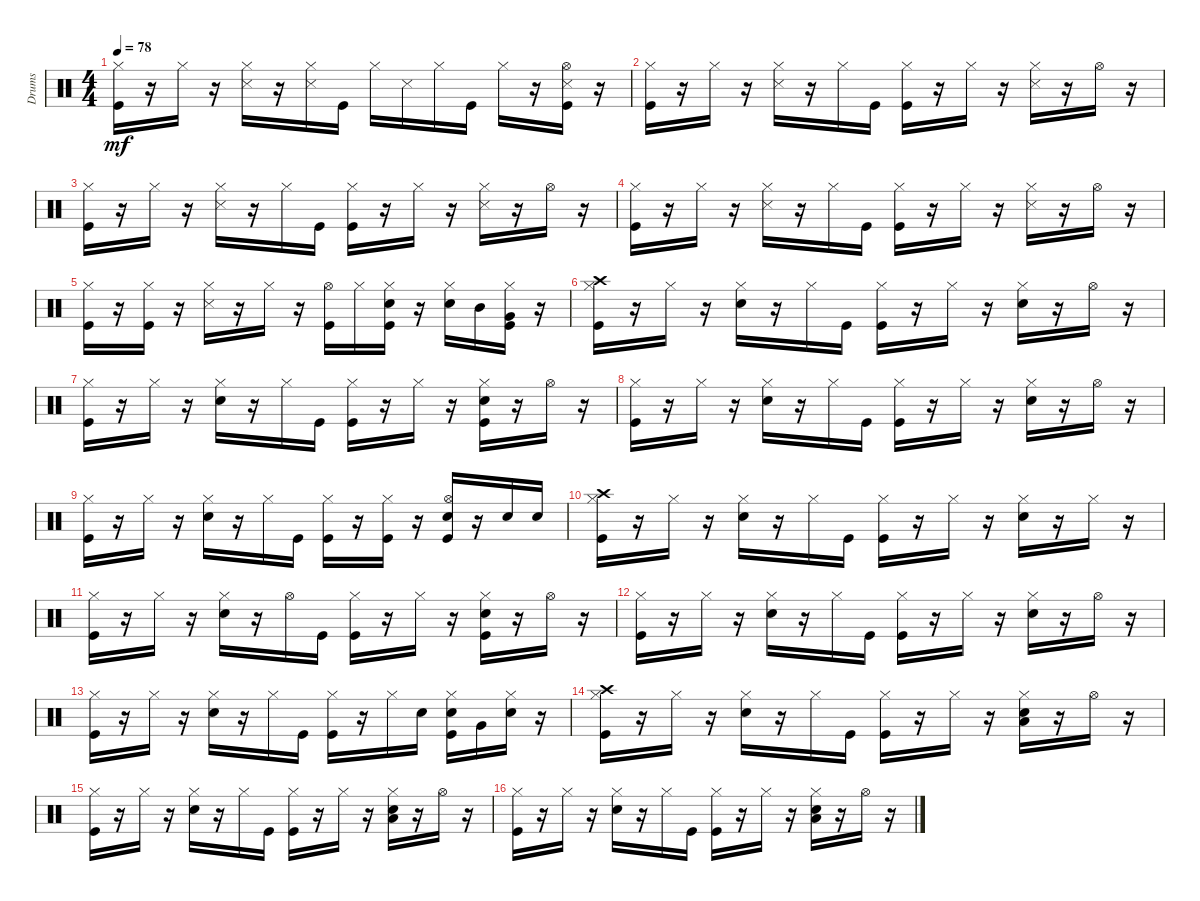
\track ("Drums               " "Drums     ") {instrument percussion}
\staff {score}
\articulation defaults
\ts (4 4)
\tempo 78
\clef neutral
\ks c
("Kick (hit)" "Hi-Hat (closed)").16{dy mf} r.16 "Hi-Hat (closed)".16 r.16 ("Hi-Hat (closed)" "Snare (side stick) 3").16 r.16 ("Hi-Hat (closed)" "Snare (side stick) 3").16 "Kick (hit)".16 "Hi-Hat (closed)".16 "Snare (side stick) 3".16 "Hi-Hat (closed)".16 "Kick (hit)".16 "Hi-Hat (closed)".16 r.16 ("Kick (hit)" "Hi-Hat (open)" "Snare (side stick) 3").16 r.16 |
("Kick (hit)" "Hi-Hat (closed)").16 r.16 "Hi-Hat (closed)".16 r.16 ("Hi-Hat (closed)" "Snare (side stick) 3").16 r.16 "Hi-Hat (closed)".16 "Kick (hit)".16 ("Kick (hit)" "Hi-Hat (closed)").16 r.16 "Hi-Hat (closed)".16 r.16 ("Hi-Hat (closed)" "Snare (side stick) 3").16 r.16 "Hi-Hat (open)".16 r.16 |
("Kick (hit)" "Hi-Hat (closed)").16 r.16 "Hi-Hat (closed)".16 r.16 ("Hi-Hat (closed)" "Snare (side stick) 3").16 r.16 "Hi-Hat (closed)".16 "Kick (hit)".16 ("Kick (hit)" "Hi-Hat (closed)").16 r.16 "Hi-Hat (closed)".16 r.16 ("Hi-Hat (closed)" "Snare (side stick) 3").16 r.16 "Hi-Hat (open)".16 r.16 |
("Kick (hit)" "Hi-Hat (closed)").16 r.16 "Hi-Hat (closed)".16 r.16 ("Hi-Hat (closed)" "Snare (side stick) 3").16 r.16 "Hi-Hat (closed)".16 "Kick (hit)".16 ("Kick (hit)" "Hi-Hat (closed)").16 r.16 "Hi-Hat (closed)".16 r.16 ("Hi-Hat (closed)" "Snare (side stick) 3").16 r.16 "Hi-Hat (open)".16 r.16 |
("Kick (hit)" "Hi-Hat (closed)").16 r.16 ("Kick (hit)" "Hi-Hat (closed)").16 r.16 ("Hi-Hat (closed)" "Snare (side stick) 3").16 r.16 "Hi-Hat (closed)".16 r.16 ("Kick (hit)" "Hi-Hat (open)").16 "Hi-Hat (closed)".16 ("Kick (hit)" "Snare (hit) 2" "Hi-Hat (closed)").16 r.16 ("Snare (hit) 2" "Hi-Hat (closed)").16 "Mid Tom (hit)".16 ("Kick (hit)" "Hi-Hat (closed)" "Very Low Tom (hit)").16 r.16 |
("Kick (hit)" "Hi-Hat (closed)" "Crash high (hit)").16 r.16 "Hi-Hat (closed)".16 r.16 ("Snare (hit) 2" "Hi-Hat (closed)").16 r.16 "Hi-Hat (closed)".16 "Kick (hit)".16 ("Kick (hit)" "Hi-Hat (closed)").16 r.16 "Hi-Hat (closed)".16 r.16 ("Snare (hit) 2" "Hi-Hat (closed)").16 r.16 "Hi-Hat (open)".16 r.16 |
("Kick (hit)" "Hi-Hat (closed)").16 r.16 "Hi-Hat (closed)".16 r.16 ("Snare (hit) 2" "Hi-Hat (closed)").16 r.16 "Hi-Hat (closed)".16 "Kick (hit)".16 ("Kick (hit)" "Hi-Hat (closed)").16 r.16 "Hi-Hat (closed)".16 r.16 ("Kick (hit)" "Snare (hit) 2" "Hi-Hat (closed)").16 r.16 "Hi-Hat (open)".16 r.16 |
("Kick (hit)" "Hi-Hat (closed)").16 r.16 "Hi-Hat (closed)".16 r.16 ("Snare (hit) 2" "Hi-Hat (closed)").16 r.16 "Hi-Hat (closed)".16 "Kick (hit)".16 ("Kick (hit)" "Hi-Hat (closed)").16 r.16 "Hi-Hat (closed)".16 r.16 ("Snare (hit) 2" "Hi-Hat (closed)").16 r.16 "Hi-Hat (open)".16 r.16 |
("Kick (hit)" "Hi-Hat (closed)").16 r.16 "Hi-Hat (closed)".16 r.16 ("Snare (hit) 2" "Hi-Hat (closed)").16 r.16 "Hi-Hat (closed)".16 "Kick (hit)".16 ("Kick (hit)" "Hi-Hat (closed)").16 r.16 ("Kick (hit)" "Hi-Hat (closed)").16 r.16 ("Kick (hit)" "Snare (hit) 2" "Hi-Hat (open)").16 r.16 "Snare (hit) 2".16 "Snare (hit) 2".16 |
("Kick (hit)" "Hi-Hat (closed)" "Crash high (hit)").16 r.16 "Hi-Hat (closed)".16 r.16 ("Snare (hit) 2" "Hi-Hat (closed)").16 r.16 "Hi-Hat (closed)".16 "Kick (hit)".16 ("Kick (hit)" "Hi-Hat (closed)").16 r.16 "Hi-Hat (closed)".16 r.16 ("Snare (hit) 2" "Hi-Hat (closed)").16 r.16 "Hi-Hat (closed)".16 r.16 |
("Kick (hit)" "Hi-Hat (closed)").16 r.16 "Hi-Hat (closed)".16 r.16 ("Snare (hit) 2" "Hi-Hat (closed)").16 r.16 "Hi-Hat (open)".16 "Kick (hit)".16 ("Kick (hit)" "Hi-Hat (closed)").16 r.16 "Hi-Hat (closed)".16 r.16 ("Kick (hit)" "Snare (hit) 2" "Hi-Hat (closed)").16 r.16 "Hi-Hat (open)".16 r.16 |
("Kick (hit)" "Hi-Hat (closed)").16 r.16 "Hi-Hat (closed)".16 r.16 ("Snare (hit) 2" "Hi-Hat (closed)").16 r.16 "Hi-Hat (closed)".16 "Kick (hit)".16 ("Kick (hit)" "Hi-Hat (closed)").16 r.16 "Hi-Hat (closed)".16 r.16 ("Snare (hit) 2" "Hi-Hat (closed)").16 r.16 "Hi-Hat (open)".16 r.16 |
("Kick (hit)" "Hi-Hat (closed)").16 r.16 "Hi-Hat (closed)".16 r.16 ("Snare (hit) 2" "Hi-Hat (closed)").16 r.16 "Hi-Hat (closed)".16 "Kick (hit)".16 ("Kick (hit)" "Hi-Hat (closed)").16 r.16 "Hi-Hat (closed)".16 "Snare (hit) 2".16 ("Kick (hit)" "Snare (hit) 2" "Hi-Hat (closed)").16 "Very Low Tom (hit)".16 ("Snare (hit) 2" "Hi-Hat (closed)").16 r.16 |
("Kick (hit)" "Hi-Hat (closed)" "Crash high (hit)").16 r.16 "Hi-Hat (closed)".16 r.16 ("Snare (hit) 2" "Hi-Hat (closed)").16 r.16 "Hi-Hat (closed)".16 "Kick (hit)".16 ("Kick (hit)" "Hi-Hat (closed)").16 r.16 "Hi-Hat (closed)".16 r.16 ("Snare (hit) 2" "Hi-Hat (closed)" "Low Floor Tom (hit)").16 r.16 "Hi-Hat (open)".16 r.16 |
("Kick (hit)" "Hi-Hat (closed)").16 r.16 "Hi-Hat (closed)".16 r.16 ("Snare (hit) 2" "Hi-Hat (closed)").16 r.16 "Hi-Hat (closed)".16 "Kick (hit)".16 ("Kick (hit)" "Hi-Hat (closed)").16 r.16 "Hi-Hat (closed)".16 r.16 ("Snare (hit) 2" "Hi-Hat (closed)" "Low Floor Tom (hit)").16 r.16 "Hi-Hat (open)".16 r.16 |
("Kick (hit)" "Hi-Hat (closed)").16 r.16 "Hi-Hat (closed)".16 r.16 ("Snare (hit) 2" "Hi-Hat (closed)").16 r.16 "Hi-Hat (closed)".16 "Kick (hit)".16 ("Kick (hit)" "Hi-Hat (closed)").16 r.16 "Hi-Hat (closed)".16 r.16 ("Snare (hit) 2" "Hi-Hat (closed)" "Low Floor Tom (hit)").16 r.16 "Hi-Hat (open)".16 r.16
